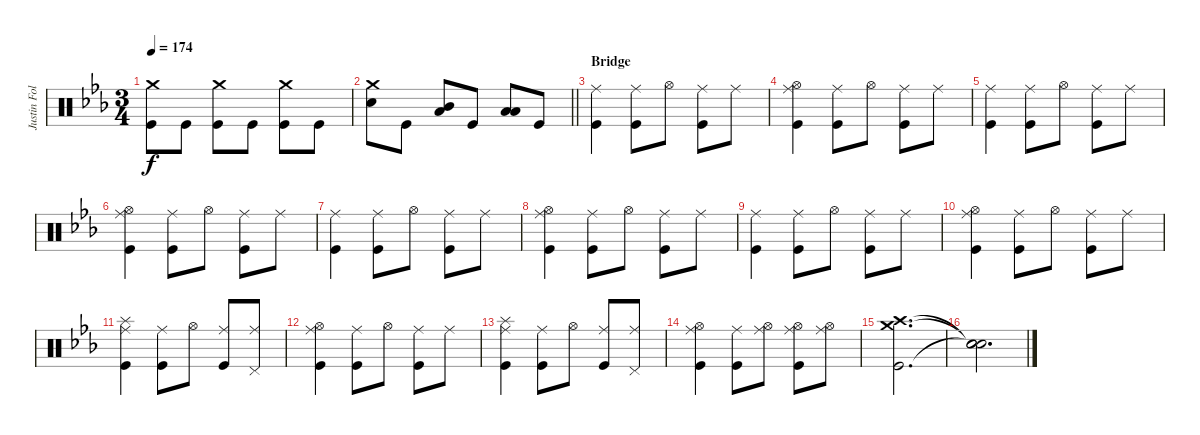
\track ("Justin Foley" "Justin Fol") {instrument percussion}
\staff {score}
\articulation defaults
\ts (3 4)
\tempo 174
\clef neutral
\ks cminor
("Crash medium (hit)" "Kick (hit)").8{dy f} "Kick (hit)".8 ("Crash medium (hit)" "Kick (hit)").8 "Kick (hit)".8 ("Crash medium (hit)" "Kick (hit)").8 "Kick (hit)".8 |
\barLineRight lightlight
("Crash medium (hit)" "Snare (hit) 2").8 "Kick (hit)".8 ("Low Tom (hit)" "Mid Tom (hit)").8 "Kick (hit)".8 ("Low Floor Tom (hit)" "Low Tom (hit)").8 "Kick (hit)".8 |
\section ("" "Bridge")
("Ride (middle)" "Kick (hit)").4 ("Ride (middle)" "Kick (hit)").8 "Hi-Hat (open)".8 ("Ride (middle)" "Kick (hit)").8 "Ride (middle)".8 |
("Ride (middle)" "Kick (hit)" "Hi-Hat (open)").4 ("Ride (middle)" "Kick (hit)").8 "Hi-Hat (open)".8 ("Ride (middle)" "Kick (hit)").8 "Ride (middle)".8 |
("Ride (middle)" "Kick (hit)").4 ("Ride (middle)" "Kick (hit)").8 "Hi-Hat (open)".8 ("Ride (middle)" "Kick (hit)").8 "Ride (middle)".8 |
("Ride (middle)" "Kick (hit)" "Hi-Hat (open)").4 ("Ride (middle)" "Kick (hit)").8 "Hi-Hat (open)".8 ("Ride (middle)" "Kick (hit)").8 "Ride (middle)".8 |
("Ride (middle)" "Kick (hit)").4 ("Ride (middle)" "Kick (hit)").8 "Hi-Hat (open)".8 ("Ride (middle)" "Kick (hit)").8 "Ride (middle)".8 |
("Ride (middle)" "Kick (hit)" "Hi-Hat (open)").4 ("Ride (middle)" "Kick (hit)").8 "Hi-Hat (open)".8 ("Ride (middle)" "Kick (hit)").8 "Ride (middle)".8 |
("Ride (middle)" "Kick (hit)").4 ("Ride (middle)" "Kick (hit)").8 "Hi-Hat (open)".8 ("Ride (middle)" "Kick (hit)").8 "Ride (middle)".8 |
("Ride (middle)" "Kick (hit)" "Hi-Hat (open)").4 ("Ride (middle)" "Kick (hit)").8 "Hi-Hat (open)".8 ("Ride (middle)" "Kick (hit)").8 "Ride (middle)".8 |
("Splash (hit)" "Kick (hit)" "Ride (middle)").4 ("Ride (middle)" "Kick (hit)").8 "Hi-Hat (open)".8 ("Ride (middle)" "Kick (hit)").8 ("Ride (middle)" "Pedal Hi-Hat (hit)").8 |
("Ride (middle)" "Kick (hit)" "Hi-Hat (open)").4 ("Ride (middle)" "Kick (hit)").8 "Hi-Hat (open)".8 ("Ride (middle)" "Kick (hit)").8 "Ride (middle)".8 |
("Splash (hit)" "Kick (hit)" "Ride (middle)").4 ("Ride (middle)" "Kick (hit)").8 "Hi-Hat (open)".8 ("Ride (middle)" "Kick (hit)").8 ("Ride (middle)" "Pedal Hi-Hat (hit)").8 |
("Ride (middle)" "Kick (hit)" "Hi-Hat (open)").4 ("Ride (middle)" "Kick (hit)").8 ("Ride (middle)" "Hi-Hat (open)").8 ("Ride (middle)" "Kick (hit)" "Hi-Hat (open)").8 ("Ride (middle)" "Hi-Hat (open)").8 |
("Kick (hit)" "Crash high (hit)" "Crash medium (hit)").2{d} |
("Snare (hit)"{t} "Snare (hit)"{t} "Snare (hit)"{t}).2{d}
